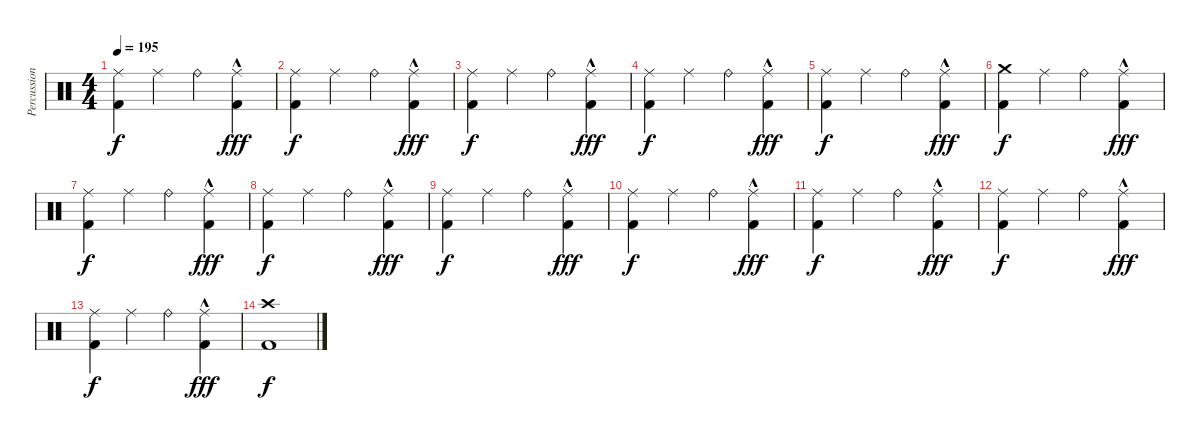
\track ("Percussion" "Percussion") {instrument percussion}
\staff {score}
\articulation defaults
\ts (4 4)
\tempo 195
\clef neutral
\ks c
("Ride (middle)" "Kick (hit) 2").4{dy f} "Ride (middle)".4 "Ride (bell)".4 ("Ride (middle)" "Kick (hit) 2"{hac}).4{dy fff} |
("Ride (middle)" "Kick (hit) 2").4{dy f} "Ride (middle)".4 "Ride (bell)".4 ("Ride (middle)" "Kick (hit) 2"{hac}).4{dy fff} |
("Ride (middle)" "Kick (hit) 2").4{dy f} "Ride (middle)".4 "Ride (bell)".4 ("Ride (middle)" "Kick (hit) 2"{hac}).4{dy fff} |
("Ride (middle)" "Kick (hit) 2").4{dy f} "Ride (middle)".4 "Ride (bell)".4 ("Ride (middle)" "Kick (hit) 2"{hac}).4{dy fff} |
("Ride (middle)" "Kick (hit) 2").4{dy f} "Ride (middle)".4 "Ride (bell)".4 ("Ride (middle)" "Kick (hit) 2"{hac}).4{dy fff} |
("Crash medium (hit)" "Kick (hit) 2").4{dy f} "Ride (middle)".4 "Ride (bell)".4 ("Ride (middle)" "Kick (hit) 2"{hac}).4{dy fff} |
("Ride (middle)" "Kick (hit) 2").4{dy f} "Ride (middle)".4 "Ride (bell)".4 ("Ride (middle)" "Kick (hit) 2"{hac}).4{dy fff} |
("Ride (middle)" "Kick (hit) 2").4{dy f} "Ride (middle)".4 "Ride (bell)".4 ("Ride (middle)" "Kick (hit) 2"{hac}).4{dy fff} |
("Ride (middle)" "Kick (hit) 2").4{dy f} "Ride (middle)".4 "Ride (bell)".4 ("Ride (middle)" "Kick (hit) 2"{hac}).4{dy fff} |
("Ride (middle)" "Kick (hit) 2").4{dy f} "Ride (middle)".4 "Ride (bell)".4 ("Ride (middle)" "Kick (hit) 2"{hac}).4{dy fff} |
("Ride (middle)" "Kick (hit) 2").4{dy f} "Ride (middle)".4 "Ride (bell)".4 ("Ride (middle)" "Kick (hit) 2"{hac}).4{dy fff} |
("Ride (middle)" "Kick (hit) 2").4{dy f} "Ride (middle)".4 "Ride (bell)".4 ("Ride (middle)" "Kick (hit) 2"{hac}).4{dy fff} |
("Ride (middle)" "Kick (hit) 2").4{dy f} "Ride (middle)".4 "Ride (bell)".4 ("Ride (middle)" "Kick (hit) 2"{hac}).4{dy fff} |
("Crash high (hit)" "Kick (hit) 2").1{dy f}
